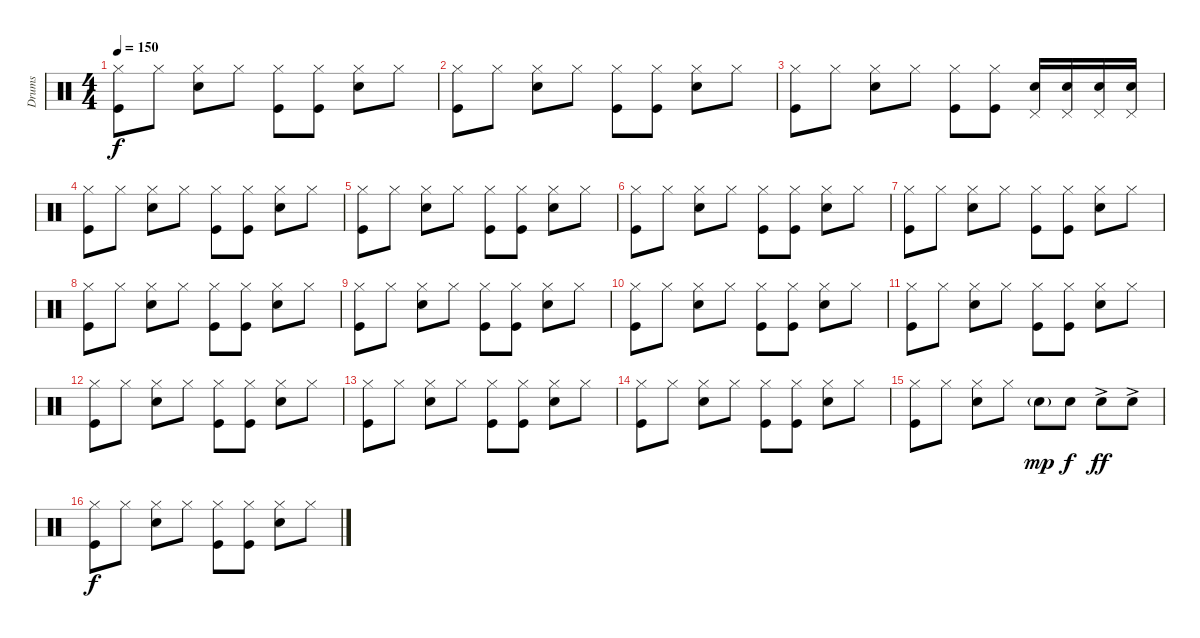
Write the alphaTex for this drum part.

\track ("Drums" "Drums") {instrument percussion}
\staff {score}
\articulation defaults
\ts (4 4)
\tempo 150
\clef neutral
\ks c
("Hi-Hat (closed)" "Kick (hit)").8{dy f} "Hi-Hat (closed)".8 ("Hi-Hat (closed)" "Electric Snare (hit)").8 "Hi-Hat (closed)".8 ("Hi-Hat (closed)" "Kick (hit)").8 ("Hi-Hat (closed)" "Kick (hit)").8 ("Hi-Hat (closed)" "Electric Snare (hit)").8 "Hi-Hat (closed)".8 |
("Hi-Hat (closed)" "Kick (hit)").8 "Hi-Hat (closed)".8 ("Hi-Hat (closed)" "Electric Snare (hit)").8 "Hi-Hat (closed)".8 ("Hi-Hat (closed)" "Kick (hit)").8 ("Hi-Hat (closed)" "Kick (hit)").8 ("Hi-Hat (closed)" "Electric Snare (hit)").8 "Hi-Hat (closed)".8 |
("Hi-Hat (closed)" "Kick (hit)").8 "Hi-Hat (closed)".8 ("Hi-Hat (closed)" "Electric Snare (hit)").8 "Hi-Hat (closed)".8 ("Hi-Hat (closed)" "Kick (hit)").8 ("Hi-Hat (closed)" "Kick (hit)").8 ("Pedal Hi-Hat (hit)" "Electric Snare (hit)").16 ("Pedal Hi-Hat (hit)" "Electric Snare (hit)").16 ("Pedal Hi-Hat (hit)" "Electric Snare (hit)").16 ("Pedal Hi-Hat (hit)" "Electric Snare (hit)").16 |
("Hi-Hat (closed)" "Kick (hit)").8 "Hi-Hat (closed)".8 ("Hi-Hat (closed)" "Electric Snare (hit)").8 "Hi-Hat (closed)".8 ("Hi-Hat (closed)" "Kick (hit)").8 ("Hi-Hat (closed)" "Kick (hit)").8 ("Hi-Hat (closed)" "Electric Snare (hit)").8 "Hi-Hat (closed)".8 |
("Hi-Hat (closed)" "Kick (hit)").8 "Hi-Hat (closed)".8 ("Hi-Hat (closed)" "Electric Snare (hit)").8 "Hi-Hat (closed)".8 ("Hi-Hat (closed)" "Kick (hit)").8 ("Hi-Hat (closed)" "Kick (hit)").8 ("Hi-Hat (closed)" "Electric Snare (hit)").8 "Hi-Hat (closed)".8 |
("Hi-Hat (closed)" "Kick (hit)").8 "Hi-Hat (closed)".8 ("Hi-Hat (closed)" "Electric Snare (hit)").8 "Hi-Hat (closed)".8 ("Hi-Hat (closed)" "Kick (hit)").8 ("Hi-Hat (closed)" "Kick (hit)").8 ("Hi-Hat (closed)" "Electric Snare (hit)").8 "Hi-Hat (closed)".8 |
("Hi-Hat (closed)" "Kick (hit)").8 "Hi-Hat (closed)".8 ("Hi-Hat (closed)" "Electric Snare (hit)").8 "Hi-Hat (closed)".8 ("Hi-Hat (closed)" "Kick (hit)").8 ("Hi-Hat (closed)" "Kick (hit)").8 ("Hi-Hat (closed)" "Electric Snare (hit)").8 "Hi-Hat (closed)".8 |
("Hi-Hat (closed)" "Kick (hit)").8 "Hi-Hat (closed)".8 ("Hi-Hat (closed)" "Electric Snare (hit)").8 "Hi-Hat (closed)".8 ("Hi-Hat (closed)" "Kick (hit)").8 ("Hi-Hat (closed)" "Kick (hit)").8 ("Hi-Hat (closed)" "Electric Snare (hit)").8 "Hi-Hat (closed)".8 |
("Hi-Hat (closed)" "Kick (hit)").8 "Hi-Hat (closed)".8 ("Hi-Hat (closed)" "Electric Snare (hit)").8 "Hi-Hat (closed)".8 ("Hi-Hat (closed)" "Kick (hit)").8 ("Hi-Hat (closed)" "Kick (hit)").8 ("Hi-Hat (closed)" "Electric Snare (hit)").8 "Hi-Hat (closed)".8 |
("Hi-Hat (closed)" "Kick (hit)").8 "Hi-Hat (closed)".8 ("Hi-Hat (closed)" "Electric Snare (hit)").8 "Hi-Hat (closed)".8 ("Hi-Hat (closed)" "Kick (hit)").8 ("Hi-Hat (closed)" "Kick (hit)").8 ("Hi-Hat (closed)" "Electric Snare (hit)").8 "Hi-Hat (closed)".8 |
("Hi-Hat (closed)" "Kick (hit)").8 "Hi-Hat (closed)".8 ("Hi-Hat (closed)" "Electric Snare (hit)").8 "Hi-Hat (closed)".8 ("Hi-Hat (closed)" "Kick (hit)").8 ("Hi-Hat (closed)" "Kick (hit)").8 ("Hi-Hat (closed)" "Electric Snare (hit)").8 "Hi-Hat (closed)".8 |
("Hi-Hat (closed)" "Kick (hit)").8 "Hi-Hat (closed)".8 ("Hi-Hat (closed)" "Electric Snare (hit)").8 "Hi-Hat (closed)".8 ("Hi-Hat (closed)" "Kick (hit)").8 ("Hi-Hat (closed)" "Kick (hit)").8 ("Hi-Hat (closed)" "Electric Snare (hit)").8 "Hi-Hat (closed)".8 |
("Hi-Hat (closed)" "Kick (hit)").8 "Hi-Hat (closed)".8 ("Hi-Hat (closed)" "Electric Snare (hit)").8 "Hi-Hat (closed)".8 ("Hi-Hat (closed)" "Kick (hit)").8 ("Hi-Hat (closed)" "Kick (hit)").8 ("Hi-Hat (closed)" "Electric Snare (hit)").8 "Hi-Hat (closed)".8 |
("Hi-Hat (closed)" "Kick (hit)").8 "Hi-Hat (closed)".8 ("Hi-Hat (closed)" "Electric Snare (hit)").8 "Hi-Hat (closed)".8 ("Hi-Hat (closed)" "Kick (hit)").8 ("Hi-Hat (closed)" "Kick (hit)").8 ("Hi-Hat (closed)" "Electric Snare (hit)").8 "Hi-Hat (closed)".8 |
("Hi-Hat (closed)" "Kick (hit)").8 "Hi-Hat (closed)".8 ("Hi-Hat (closed)" "Electric Snare (hit)").8 "Hi-Hat (closed)".8 "Electric Snare (hit)"{g}.8{dy mp} "Electric Snare (hit)".8{dy f} "Electric Snare (hit)"{ac}.8{dy ff} "Electric Snare (hit)"{ac}.8 |
("Hi-Hat (closed)" "Kick (hit)").8{dy f} "Hi-Hat (closed)".8 ("Hi-Hat (closed)" "Electric Snare (hit)").8 "Hi-Hat (closed)".8 ("Hi-Hat (closed)" "Kick (hit)").8 ("Hi-Hat (closed)" "Kick (hit)").8 ("Hi-Hat (closed)" "Electric Snare (hit)").8 "Hi-Hat (closed)".8
